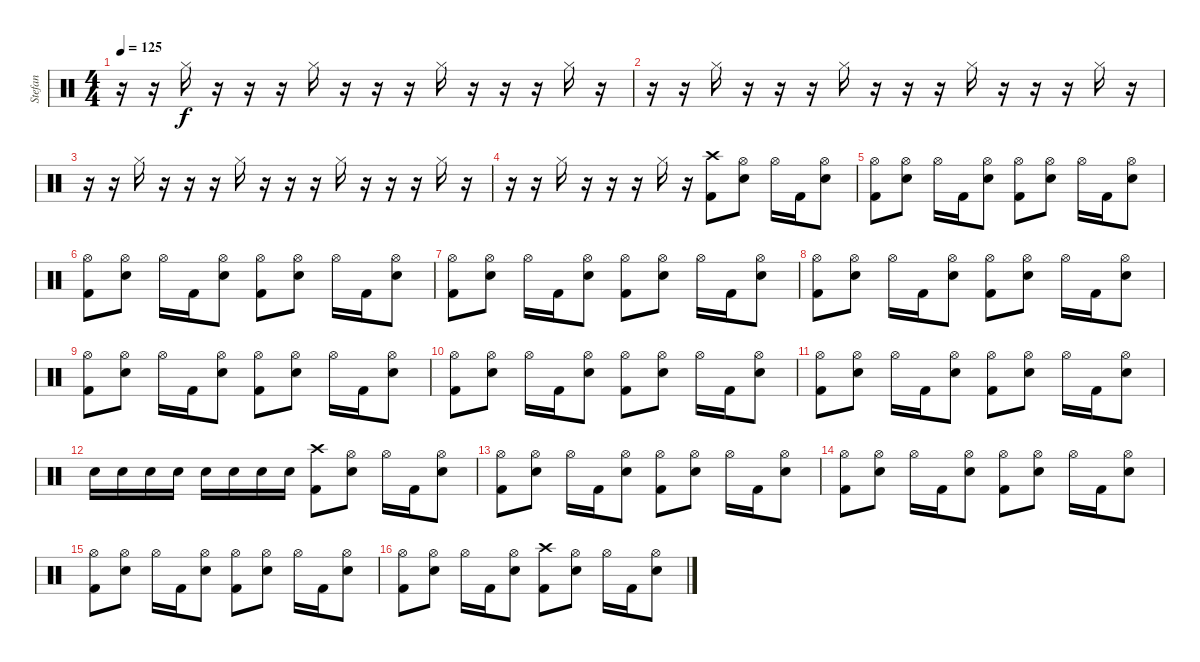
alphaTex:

\track ("Stefan" "Stefan") {instrument percussion}
\staff {score}
\articulation defaults
\ts (4 4)
\tempo 125
\clef neutral
\ks c
r.16{dy f} r.16 "Hi-Hat (closed)".16 r.16 r.16 r.16 "Hi-Hat (closed)".16 r.16 r.16 r.16 "Hi-Hat (closed)".16 r.16 r.16 r.16 "Hi-Hat (closed)".16 r.16 |
r.16 r.16 "Hi-Hat (closed)".16 r.16 r.16 r.16 "Hi-Hat (closed)".16 r.16 r.16 r.16 "Hi-Hat (closed)".16 r.16 r.16 r.16 "Hi-Hat (closed)".16 r.16 |
r.16 r.16 "Hi-Hat (closed)".16 r.16 r.16 r.16 "Hi-Hat (closed)".16 r.16 r.16 r.16 "Hi-Hat (closed)".16 r.16 r.16 r.16 "Hi-Hat (closed)".16 r.16 |
r.16 r.16 "Hi-Hat (closed)".16 r.16 r.16 r.16 "Hi-Hat (closed)".16 r.16 ("Crash high (hit)" "Kick (hit) 2").8 ("Hi-Hat (open)" "Electric Snare (hit)").8 "Hi-Hat (open)".16 "Kick (hit) 2".16 ("Hi-Hat (open)" "Electric Snare (hit)").8 |
("Hi-Hat (open)" "Kick (hit) 2").8 ("Hi-Hat (open)" "Electric Snare (hit)").8 "Hi-Hat (open)".16 "Kick (hit) 2".16 ("Hi-Hat (open)" "Electric Snare (hit)").8 ("Hi-Hat (open)" "Kick (hit) 2").8 ("Hi-Hat (open)" "Electric Snare (hit)").8 "Hi-Hat (open)".16 "Kick (hit) 2".16 ("Hi-Hat (open)" "Electric Snare (hit)").8 |
("Hi-Hat (open)" "Kick (hit) 2").8 ("Hi-Hat (open)" "Electric Snare (hit)").8 "Hi-Hat (open)".16 "Kick (hit) 2".16 ("Hi-Hat (open)" "Electric Snare (hit)").8 ("Hi-Hat (open)" "Kick (hit) 2").8 ("Hi-Hat (open)" "Electric Snare (hit)").8 "Hi-Hat (open)".16 "Kick (hit) 2".16 ("Hi-Hat (open)" "Electric Snare (hit)").8 |
("Hi-Hat (open)" "Kick (hit) 2").8 ("Hi-Hat (open)" "Electric Snare (hit)").8 "Hi-Hat (open)".16 "Kick (hit) 2".16 ("Hi-Hat (open)" "Electric Snare (hit)").8 ("Hi-Hat (open)" "Kick (hit) 2").8 ("Hi-Hat (open)" "Electric Snare (hit)").8 "Hi-Hat (open)".16 "Kick (hit) 2".16 ("Hi-Hat (open)" "Electric Snare (hit)").8 |
("Hi-Hat (open)" "Kick (hit) 2").8 ("Hi-Hat (open)" "Electric Snare (hit)").8 "Hi-Hat (open)".16 "Kick (hit) 2".16 ("Hi-Hat (open)" "Electric Snare (hit)").8 ("Hi-Hat (open)" "Kick (hit) 2").8 ("Hi-Hat (open)" "Electric Snare (hit)").8 "Hi-Hat (open)".16 "Kick (hit) 2".16 ("Hi-Hat (open)" "Electric Snare (hit)").8 |
("Hi-Hat (open)" "Kick (hit) 2").8 ("Hi-Hat (open)" "Electric Snare (hit)").8 "Hi-Hat (open)".16 "Kick (hit) 2".16 ("Hi-Hat (open)" "Electric Snare (hit)").8 ("Hi-Hat (open)" "Kick (hit) 2").8 ("Hi-Hat (open)" "Electric Snare (hit)").8 "Hi-Hat (open)".16 "Kick (hit) 2".16 ("Hi-Hat (open)" "Electric Snare (hit)").8 |
("Hi-Hat (open)" "Kick (hit) 2").8 ("Hi-Hat (open)" "Electric Snare (hit)").8 "Hi-Hat (open)".16 "Kick (hit) 2".16 ("Hi-Hat (open)" "Electric Snare (hit)").8 ("Hi-Hat (open)" "Kick (hit) 2").8 ("Hi-Hat (open)" "Electric Snare (hit)").8 "Hi-Hat (open)".16 "Kick (hit) 2".16 ("Hi-Hat (open)" "Electric Snare (hit)").8 |
("Hi-Hat (open)" "Kick (hit) 2").8 ("Hi-Hat (open)" "Electric Snare (hit)").8 "Hi-Hat (open)".16 "Kick (hit) 2".16 ("Hi-Hat (open)" "Electric Snare (hit)").8 ("Hi-Hat (open)" "Kick (hit) 2").8 ("Hi-Hat (open)" "Electric Snare (hit)").8 "Hi-Hat (open)".16 "Kick (hit) 2".16 ("Hi-Hat (open)" "Electric Snare (hit)").8 |
"Electric Snare (hit)".16 "Electric Snare (hit)".16 "Electric Snare (hit)".16 "Electric Snare (hit)".16 "Electric Snare (hit)".16 "Electric Snare (hit)".16 "Electric Snare (hit)".16 "Electric Snare (hit)".16 ("Crash high (hit)" "Kick (hit) 2").8 ("Hi-Hat (open)" "Electric Snare (hit)").8 "Hi-Hat (open)".16 "Kick (hit) 2".16 ("Hi-Hat (open)" "Electric Snare (hit)").8 |
("Hi-Hat (open)" "Kick (hit) 2").8 ("Hi-Hat (open)" "Electric Snare (hit)").8 "Hi-Hat (open)".16 "Kick (hit) 2".16 ("Hi-Hat (open)" "Electric Snare (hit)").8 ("Hi-Hat (open)" "Kick (hit) 2").8 ("Hi-Hat (open)" "Electric Snare (hit)").8 "Hi-Hat (open)".16 "Kick (hit) 2".16 ("Hi-Hat (open)" "Electric Snare (hit)").8 |
("Hi-Hat (open)" "Kick (hit) 2").8 ("Hi-Hat (open)" "Electric Snare (hit)").8 "Hi-Hat (open)".16 "Kick (hit) 2".16 ("Hi-Hat (open)" "Electric Snare (hit)").8 ("Hi-Hat (open)" "Kick (hit) 2").8 ("Hi-Hat (open)" "Electric Snare (hit)").8 "Hi-Hat (open)".16 "Kick (hit) 2".16 ("Hi-Hat (open)" "Electric Snare (hit)").8 |
("Hi-Hat (open)" "Kick (hit) 2").8 ("Hi-Hat (open)" "Electric Snare (hit)").8 "Hi-Hat (open)".16 "Kick (hit) 2".16 ("Hi-Hat (open)" "Electric Snare (hit)").8 ("Hi-Hat (open)" "Kick (hit) 2").8 ("Hi-Hat (open)" "Electric Snare (hit)").8 "Hi-Hat (open)".16 "Kick (hit) 2".16 ("Hi-Hat (open)" "Electric Snare (hit)").8 |
("Hi-Hat (open)" "Kick (hit) 2").8 ("Hi-Hat (open)" "Electric Snare (hit)").8 "Hi-Hat (open)".16 "Kick (hit) 2".16 ("Hi-Hat (open)" "Electric Snare (hit)").8 ("Crash high (hit)" "Kick (hit) 2").8 ("Hi-Hat (open)" "Electric Snare (hit)").8 "Hi-Hat (open)".16 "Kick (hit) 2".16 ("Hi-Hat (open)" "Electric Snare (hit)").8
